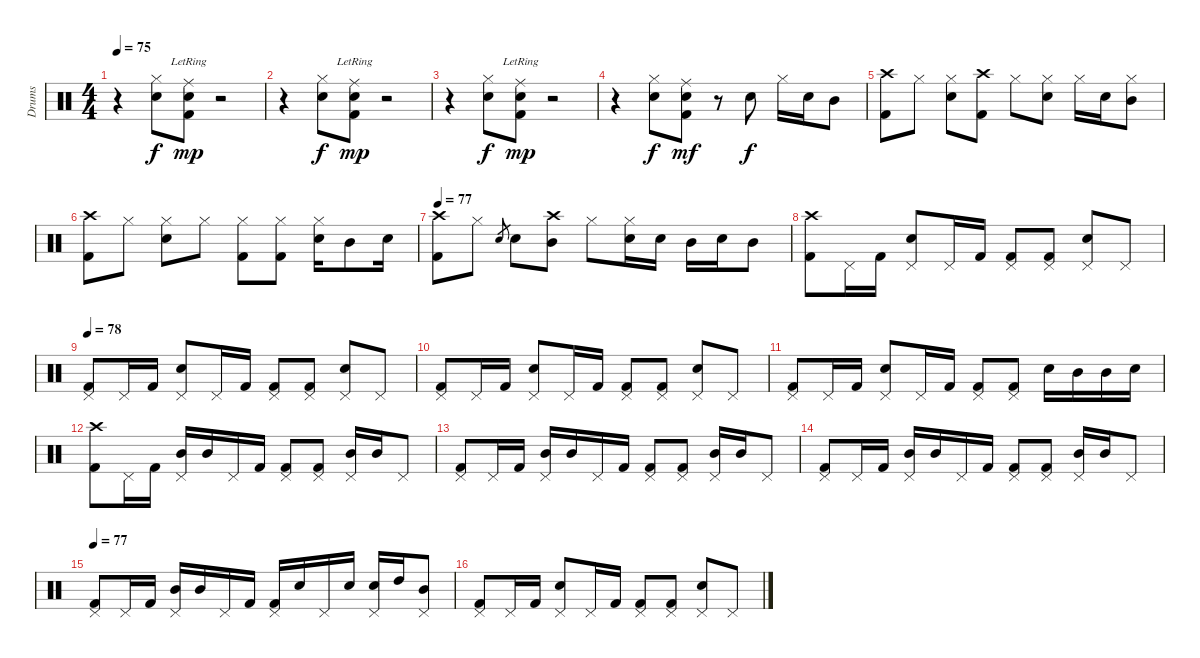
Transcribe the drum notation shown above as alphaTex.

\track ("Drums" "Drums") {instrument percussion}
\staff {score}
\articulation defaults
\ts (4 4)
\tempo 75
\clef neutral
\ks c
r.4{dy mp} ("Hi-Hat (closed)" "Electric Snare (hit)").8{dy f} ("Ride (middle)"{lr} "Electric Snare (hit)" "Kick (hit) 2").8{dy mp} r.2 |
r.4 ("Hi-Hat (closed)" "Electric Snare (hit)").8{dy f} ("Ride (middle)"{lr} "Electric Snare (hit)" "Kick (hit) 2").8{dy mp} r.2 |
r.4 ("Hi-Hat (closed)" "Electric Snare (hit)").8{dy f} ("Ride (middle)"{lr} "Electric Snare (hit)" "Kick (hit) 2").8{dy mp} r.2 |
r.4 ("Hi-Hat (closed)" "Electric Snare (hit)").8{dy f} ("Ride (middle)" "Electric Snare (hit)" "Kick (hit) 2").8{dy mf} r.8 "Electric Snare (hit)".8{dy f} "Hi-Hat (closed)".16 "Electric Snare (hit)".16 "Mid Tom (hit)".8 |
("Crash high (hit)" "Kick (hit) 2").8 "Hi-Hat (closed)".8 ("Hi-Hat (closed)" "Electric Snare (hit)").8 ("Crash high (hit)" "Kick (hit) 2").8 "Hi-Hat (closed)".8 ("Hi-Hat (closed)" "Electric Snare (hit)").8 "Hi-Hat (closed)".16 "Electric Snare (hit)".16 ("Hi-Hat (closed)" "Mid Tom (hit)").8 |
("Crash high (hit)" "Kick (hit) 2").8 "Hi-Hat (closed)".8 ("Hi-Hat (closed)" "Electric Snare (hit)").8 "Hi-Hat (closed)".8 ("Hi-Hat (closed)" "Kick (hit) 2").8 ("Hi-Hat (closed)" "Kick (hit) 2").8 ("Hi-Hat (closed)" "Electric Snare (hit)").16 "Mid Tom (hit)".8 "Electric Snare (hit)".16 |
\tempo 77
("Crash high (hit)" "Kick (hit) 2").8 "Hi-Hat (closed)".8 "Electric Snare (hit)".8{gr} "Electric Snare (hit)".8 ("Crash high (hit)" "Mid Tom (hit)").8 "Hi-Hat (closed)".8 ("Hi-Hat (closed)" "Electric Snare (hit)").16 "Electric Snare (hit)".16 "Mid Tom (hit)".16 "Electric Snare (hit)".16 "Mid Tom (hit)".8 |
("Crash high (hit)" "Kick (hit) 2").8 "Pedal Hi-Hat (hit)".16 "Kick (hit) 2".16 ("Pedal Hi-Hat (hit)" "Electric Snare (hit)").8 "Pedal Hi-Hat (hit)".16 "Kick (hit) 2".16 ("Pedal Hi-Hat (hit)" "Kick (hit) 2").8 ("Pedal Hi-Hat (hit)" "Kick (hit) 2").8 ("Pedal Hi-Hat (hit)" "Electric Snare (hit)").8 "Pedal Hi-Hat (hit)".8 |
\tempo 78
("Pedal Hi-Hat (hit)" "Kick (hit) 2").8 "Pedal Hi-Hat (hit)".16 "Kick (hit) 2".16 ("Pedal Hi-Hat (hit)" "Electric Snare (hit)").8 "Pedal Hi-Hat (hit)".16 "Kick (hit) 2".16 ("Pedal Hi-Hat (hit)" "Kick (hit) 2").8 ("Pedal Hi-Hat (hit)" "Kick (hit) 2").8 ("Pedal Hi-Hat (hit)" "Electric Snare (hit)").8 "Pedal Hi-Hat (hit)".8 |
("Pedal Hi-Hat (hit)" "Kick (hit) 2").8 "Pedal Hi-Hat (hit)".16 "Kick (hit) 2".16 ("Pedal Hi-Hat (hit)" "Electric Snare (hit)").8 "Pedal Hi-Hat (hit)".16 "Kick (hit) 2".16 ("Pedal Hi-Hat (hit)" "Kick (hit) 2").8 ("Pedal Hi-Hat (hit)" "Kick (hit) 2").8 ("Pedal Hi-Hat (hit)" "Electric Snare (hit)").8 "Pedal Hi-Hat (hit)".8 |
("Pedal Hi-Hat (hit)" "Kick (hit) 2").8 "Pedal Hi-Hat (hit)".16 "Kick (hit) 2".16 ("Pedal Hi-Hat (hit)" "Electric Snare (hit)").8 "Pedal Hi-Hat (hit)".16 "Kick (hit) 2".16 ("Pedal Hi-Hat (hit)" "Kick (hit) 2").8 ("Pedal Hi-Hat (hit)" "Kick (hit) 2").8 "Electric Snare (hit)".16 "Mid Tom (hit)".16 "Mid Tom (hit)".16 "Electric Snare (hit)".16 |
("Crash high (hit)" "Kick (hit) 2").8 "Pedal Hi-Hat (hit)".16 "Kick (hit) 2".16 ("Pedal Hi-Hat (hit)" "Mid Tom (hit)").16 "Mid Tom (hit)".16 "Pedal Hi-Hat (hit)".16 "Kick (hit) 2".16 ("Pedal Hi-Hat (hit)" "Kick (hit) 2").8 ("Pedal Hi-Hat (hit)" "Kick (hit) 2").8 ("Pedal Hi-Hat (hit)" "Mid Tom (hit)").16 "Mid Tom (hit)".16 "Pedal Hi-Hat (hit)".8 |
("Pedal Hi-Hat (hit)" "Kick (hit) 2").8 "Pedal Hi-Hat (hit)".16 "Kick (hit) 2".16 ("Pedal Hi-Hat (hit)" "Mid Tom (hit)").16 "Mid Tom (hit)".16 "Pedal Hi-Hat (hit)".16 "Kick (hit) 2".16 ("Pedal Hi-Hat (hit)" "Kick (hit) 2").8 ("Pedal Hi-Hat (hit)" "Kick (hit) 2").8 ("Pedal Hi-Hat (hit)" "Mid Tom (hit)").16 "Mid Tom (hit)".16 "Pedal Hi-Hat (hit)".8 |
("Pedal Hi-Hat (hit)" "Kick (hit) 2").8 "Pedal Hi-Hat (hit)".16 "Kick (hit) 2".16 ("Pedal Hi-Hat (hit)" "Mid Tom (hit)").16 "Mid Tom (hit)".16 "Pedal Hi-Hat (hit)".16 "Kick (hit) 2".16 ("Pedal Hi-Hat (hit)" "Kick (hit) 2").8 ("Pedal Hi-Hat (hit)" "Kick (hit) 2").8 ("Pedal Hi-Hat (hit)" "Mid Tom (hit)").16 "Mid Tom (hit)".16 "Pedal Hi-Hat (hit)".8 |
\tempo 77
("Pedal Hi-Hat (hit)" "Kick (hit) 2").8 "Pedal Hi-Hat (hit)".16 "Kick (hit) 2".16 ("Pedal Hi-Hat (hit)" "Mid Tom (hit)").16 "Mid Tom (hit)".16 "Pedal Hi-Hat (hit)".16 "Kick (hit) 2".16 ("Pedal Hi-Hat (hit)" "Kick (hit) 2").16 "Electric Snare (hit)".16 "Pedal Hi-Hat (hit)".16 "Electric Snare (hit)".16 ("Pedal Hi-Hat (hit)" "Electric Snare (hit)").16 "High Tom (hit)".16 ("Pedal Hi-Hat (hit)" "Mid Tom (hit)").8 |
("Pedal Hi-Hat (hit)" "Kick (hit) 2").8 "Pedal Hi-Hat (hit)".16 "Kick (hit) 2".16 ("Pedal Hi-Hat (hit)" "Electric Snare (hit)").8 "Pedal Hi-Hat (hit)".16 "Kick (hit) 2".16 ("Pedal Hi-Hat (hit)" "Kick (hit) 2").8 ("Pedal Hi-Hat (hit)" "Kick (hit) 2").8 ("Pedal Hi-Hat (hit)" "Electric Snare (hit)").8 "Pedal Hi-Hat (hit)".8
